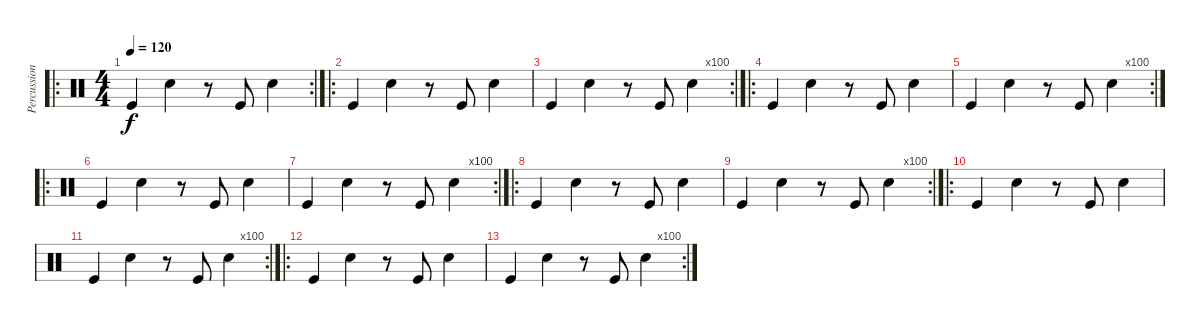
\track ("Percussion" "Percussion") {instrument percussion}
\staff {score}
\articulation defaults
\ro
\rc 2
\ts (4 4)
\tempo 120
\clef neutral
\ks c "Kick (hit)".4{dy f} "Snare (hit) 2".4
r.8 "Kick (hit)".8 "Snare (hit) 2".4 |
\ro "Kick (hit)".4 "Snare (hit) 2".4
r.8 "Kick (hit)".8 "Snare (hit) 2".4 |
\rc 100 "Kick (hit)".4 "Snare (hit) 2".4
r.8 "Kick (hit)".8 "Snare (hit) 2".4 |
\ro "Kick (hit)".4 "Snare (hit) 2".4
r.8 "Kick (hit)".8 "Snare (hit) 2".4 |
\rc 100 "Kick (hit)".4 "Snare (hit) 2".4
r.8 "Kick (hit)".8 "Snare (hit) 2".4 |
\ro "Kick (hit)".4 "Snare (hit) 2".4
r.8 "Kick (hit)".8 "Snare (hit) 2".4 |
\rc 100 "Kick (hit)".4 "Snare (hit) 2".4
r.8 "Kick (hit)".8 "Snare (hit) 2".4 |
\ro "Kick (hit)".4 "Snare (hit) 2".4
r.8 "Kick (hit)".8 "Snare (hit) 2".4 |
\rc 100 "Kick (hit)".4 "Snare (hit) 2".4
r.8 "Kick (hit)".8 "Snare (hit) 2".4 |
\ro "Kick (hit)".4 "Snare (hit) 2".4
r.8 "Kick (hit)".8 "Snare (hit) 2".4 |
\rc 100 "Kick (hit)".4 "Snare (hit) 2".4
r.8 "Kick (hit)".8 "Snare (hit) 2".4 |
\ro "Kick (hit)".4 "Snare (hit) 2".4
r.8 "Kick (hit)".8 "Snare (hit) 2".4 |
\rc 100 "Kick (hit)".4 "Snare (hit) 2".4
r.8 "Kick (hit)".8 "Snare (hit) 2".4
